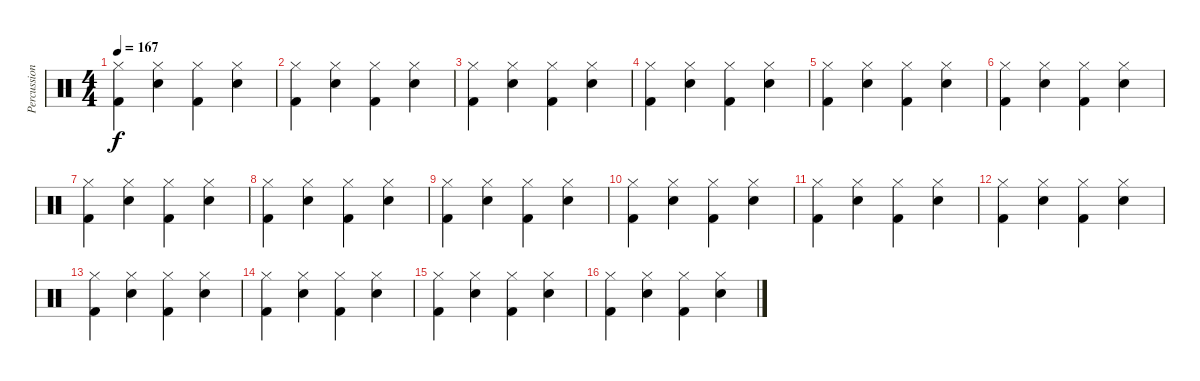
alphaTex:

\track ("Percussion" "Percussion") {instrument percussion}
\staff {score}
\articulation defaults
\ts (4 4)
\tempo 167
\clef neutral
\ks c
("Kick (hit) 2" "Hi-Hat (closed)").4{dy f} ("Hi-Hat (closed)" "Electric Snare (hit)").4 ("Kick (hit) 2" "Hi-Hat (closed)").4 ("Hi-Hat (closed)" "Electric Snare (hit)").4 |
("Kick (hit) 2" "Hi-Hat (closed)").4 ("Hi-Hat (closed)" "Electric Snare (hit)").4 ("Kick (hit) 2" "Hi-Hat (closed)").4 ("Hi-Hat (closed)" "Electric Snare (hit)").4 |
("Kick (hit) 2" "Hi-Hat (closed)").4 ("Hi-Hat (closed)" "Electric Snare (hit)").4 ("Kick (hit) 2" "Hi-Hat (closed)").4 ("Hi-Hat (closed)" "Electric Snare (hit)").4 |
("Kick (hit) 2" "Hi-Hat (closed)").4 ("Hi-Hat (closed)" "Electric Snare (hit)").4 ("Kick (hit) 2" "Hi-Hat (closed)").4 ("Hi-Hat (closed)" "Electric Snare (hit)").4 |
("Kick (hit) 2" "Hi-Hat (closed)").4 ("Hi-Hat (closed)" "Electric Snare (hit)").4 ("Kick (hit) 2" "Hi-Hat (closed)").4 ("Hi-Hat (closed)" "Electric Snare (hit)").4 |
("Kick (hit) 2" "Hi-Hat (closed)").4 ("Hi-Hat (closed)" "Electric Snare (hit)").4 ("Kick (hit) 2" "Hi-Hat (closed)").4 ("Hi-Hat (closed)" "Electric Snare (hit)").4 |
("Kick (hit) 2" "Hi-Hat (closed)").4 ("Hi-Hat (closed)" "Electric Snare (hit)").4 ("Kick (hit) 2" "Hi-Hat (closed)").4 ("Hi-Hat (closed)" "Electric Snare (hit)").4 |
("Kick (hit) 2" "Hi-Hat (closed)").4 ("Hi-Hat (closed)" "Electric Snare (hit)").4 ("Kick (hit) 2" "Hi-Hat (closed)").4 ("Hi-Hat (closed)" "Electric Snare (hit)").4 |
("Kick (hit) 2" "Hi-Hat (closed)").4 ("Hi-Hat (closed)" "Electric Snare (hit)").4 ("Kick (hit) 2" "Hi-Hat (closed)").4 ("Hi-Hat (closed)" "Electric Snare (hit)").4 |
("Kick (hit) 2" "Hi-Hat (closed)").4 ("Hi-Hat (closed)" "Electric Snare (hit)").4 ("Kick (hit) 2" "Hi-Hat (closed)").4 ("Hi-Hat (closed)" "Electric Snare (hit)").4 |
("Kick (hit) 2" "Hi-Hat (closed)").4 ("Hi-Hat (closed)" "Electric Snare (hit)").4 ("Kick (hit) 2" "Hi-Hat (closed)").4 ("Hi-Hat (closed)" "Electric Snare (hit)").4 |
("Kick (hit) 2" "Hi-Hat (closed)").4 ("Hi-Hat (closed)" "Electric Snare (hit)").4 ("Kick (hit) 2" "Hi-Hat (closed)").4 ("Hi-Hat (closed)" "Electric Snare (hit)").4 |
("Kick (hit) 2" "Hi-Hat (closed)").4 ("Hi-Hat (closed)" "Electric Snare (hit)").4 ("Kick (hit) 2" "Hi-Hat (closed)").4 ("Hi-Hat (closed)" "Electric Snare (hit)").4 |
("Kick (hit) 2" "Hi-Hat (closed)").4 ("Hi-Hat (closed)" "Electric Snare (hit)").4 ("Kick (hit) 2" "Hi-Hat (closed)").4 ("Hi-Hat (closed)" "Electric Snare (hit)").4 |
("Kick (hit) 2" "Hi-Hat (closed)").4 ("Hi-Hat (closed)" "Electric Snare (hit)").4 ("Kick (hit) 2" "Hi-Hat (closed)").4 ("Hi-Hat (closed)" "Electric Snare (hit)").4 |
("Kick (hit) 2" "Hi-Hat (closed)").4 ("Hi-Hat (closed)" "Electric Snare (hit)").4 ("Kick (hit) 2" "Hi-Hat (closed)").4 ("Hi-Hat (closed)" "Electric Snare (hit)").4
